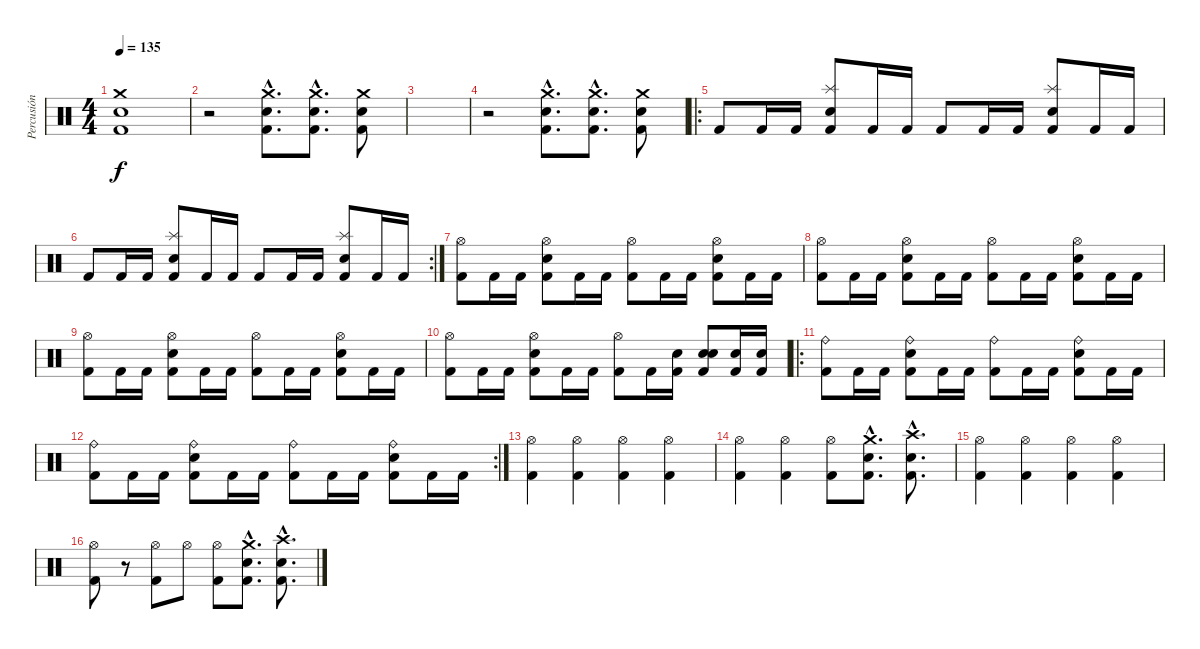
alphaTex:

\track ("Percusión" "Percusión") {instrument percussion}
\staff {score}
\articulation defaults
\ts (4 4)
\tempo 135
\clef neutral
\ks c
("Crash medium (hit)" "Electric Snare (hit)" "Kick (hit) 2").1{dy f} |
r.2 ("Crash medium (hit)"{hac} "Electric Snare (hit)"{hac} "Kick (hit) 2"{hac}).8{d} ("Crash medium (hit)"{hac} "Electric Snare (hit)"{hac} "Kick (hit) 2"{hac}).8{d} ("Crash medium (hit)" "Electric Snare (hit)" "Kick (hit) 2").8 |
|
r.2 ("Crash medium (hit)"{hac} "Electric Snare (hit)"{hac} "Kick (hit) 2"{hac}).8{d} ("Crash medium (hit)"{hac} "Electric Snare (hit)"{hac} "Kick (hit) 2"{hac}).8{d} ("Crash medium (hit)" "Electric Snare (hit)" "Kick (hit) 2").8 |
\ro "Kick (hit) 2".8 "Kick (hit) 2".16 "Kick (hit) 2".16
("Splash (hit)" "Snare (hit) 2" "Kick (hit) 2").8 "Kick (hit) 2".16 "Kick (hit) 2".16 "Kick (hit) 2".8 "Kick (hit) 2".16 "Kick (hit) 2".16 ("Splash (hit)" "Snare (hit) 2" "Kick (hit) 2").8 "Kick (hit) 2".16 "Kick (hit) 2".16 |
\rc 2 "Kick (hit) 2".8 "Kick (hit) 2".16 "Kick (hit) 2".16
("Splash (hit)" "Snare (hit) 2" "Kick (hit) 2").8 "Kick (hit) 2".16 "Kick (hit) 2".16 "Kick (hit) 2".8 "Kick (hit) 2".16 "Kick (hit) 2".16 ("Splash (hit)" "Snare (hit) 2" "Kick (hit) 2").8 "Kick (hit) 2".16 "Kick (hit) 2".16 |
("Hi-Hat (open)" "Kick (hit) 2").8 "Kick (hit) 2".16 "Kick (hit) 2".16 ("Hi-Hat (open)" "Snare (hit) 2" "Kick (hit) 2").8 "Kick (hit) 2".16 "Kick (hit) 2".16 ("Hi-Hat (open)" "Kick (hit) 2").8 "Kick (hit) 2".16 "Kick (hit) 2".16 ("Hi-Hat (open)" "Snare (hit) 2" "Kick (hit) 2").8 "Kick (hit) 2".16 "Kick (hit) 2".16 |
("Hi-Hat (open)" "Kick (hit) 2").8 "Kick (hit) 2".16 "Kick (hit) 2".16 ("Hi-Hat (open)" "Snare (hit) 2" "Kick (hit) 2").8 "Kick (hit) 2".16 "Kick (hit) 2".16 ("Hi-Hat (open)" "Kick (hit) 2").8 "Kick (hit) 2".16 "Kick (hit) 2".16 ("Hi-Hat (open)" "Snare (hit) 2" "Kick (hit) 2").8 "Kick (hit) 2".16 "Kick (hit) 2".16 |
("Hi-Hat (open)" "Kick (hit) 2").8 "Kick (hit) 2".16 "Kick (hit) 2".16 ("Hi-Hat (open)" "Snare (hit) 2" "Kick (hit) 2").8 "Kick (hit) 2".16 "Kick (hit) 2".16 ("Hi-Hat (open)" "Kick (hit) 2").8 "Kick (hit) 2".16 "Kick (hit) 2".16 ("Hi-Hat (open)" "Snare (hit) 2" "Kick (hit) 2").8 "Kick (hit) 2".16 "Kick (hit) 2".16 |
("Hi-Hat (open)" "Kick (hit) 2").8 "Kick (hit) 2".16 "Kick (hit) 2".16 ("Hi-Hat (open)" "Snare (hit) 2" "Kick (hit) 2").8 "Kick (hit) 2".16 "Kick (hit) 2".16 ("Hi-Hat (open)" "Kick (hit) 2").8 "Kick (hit) 2".16 ("Electric Snare (hit)" "Kick (hit) 2").16 ("Snare (hit) 2" "Electric Snare (hit)" "Kick (hit) 2").8 ("Electric Snare (hit)" "Kick (hit) 2").16 ("Electric Snare (hit)" "Kick (hit) 2").16 |
\ro
("Ride (bell)" "Kick (hit) 2").8 "Kick (hit) 2".16 "Kick (hit) 2".16 ("Ride (bell)" "Snare (hit) 2" "Kick (hit) 2").8 "Kick (hit) 2".16 "Kick (hit) 2".16 ("Ride (bell)" "Kick (hit) 2").8 "Kick (hit) 2".16 "Kick (hit) 2".16 ("Ride (bell)" "Snare (hit) 2" "Kick (hit) 2").8 "Kick (hit) 2".16 "Kick (hit) 2".16 |
\rc 2
("Ride (bell)" "Kick (hit) 2").8 "Kick (hit) 2".16 "Kick (hit) 2".16 ("Ride (bell)" "Snare (hit) 2" "Kick (hit) 2").8 "Kick (hit) 2".16 "Kick (hit) 2".16 ("Ride (bell)" "Kick (hit) 2").8 "Kick (hit) 2".16 "Kick (hit) 2".16 ("Ride (bell)" "Snare (hit) 2" "Kick (hit) 2").8 "Kick (hit) 2".16 "Kick (hit) 2".16 |
("Hi-Hat (open)" "Kick (hit) 2").4 ("Hi-Hat (open)" "Kick (hit) 2").4 ("Hi-Hat (open)" "Kick (hit) 2").4 ("Hi-Hat (open)" "Kick (hit) 2").4 |
("Hi-Hat (open)" "Kick (hit) 2").4 ("Hi-Hat (open)" "Kick (hit) 2").4 ("Hi-Hat (open)" "Kick (hit) 2").8 ("Crash medium (hit)"{hac} "Snare (hit) 2"{hac} "Kick (hit) 2"{hac}).8{d} ("Crash high (hit)"{hac} "Snare (hit) 2"{hac} "Kick (hit) 2"{hac}).8{d} |
("Hi-Hat (open)" "Kick (hit) 2").4 ("Hi-Hat (open)" "Kick (hit) 2").4 ("Hi-Hat (open)" "Kick (hit) 2").4 ("Hi-Hat (open)" "Kick (hit) 2").4 |
("Hi-Hat (open)" "Kick (hit) 2").8 r.8 ("Hi-Hat (open)" "Kick (hit) 2").8 "Hi-Hat (open)".8 ("Hi-Hat (open)" "Kick (hit) 2").8 ("Crash medium (hit)"{hac} "Electric Snare (hit)"{hac} "Kick (hit) 2"{hac}).8{d} ("Crash high (hit)"{hac} "Electric Snare (hit)"{hac} "Kick (hit) 2"{hac}).8{d}
